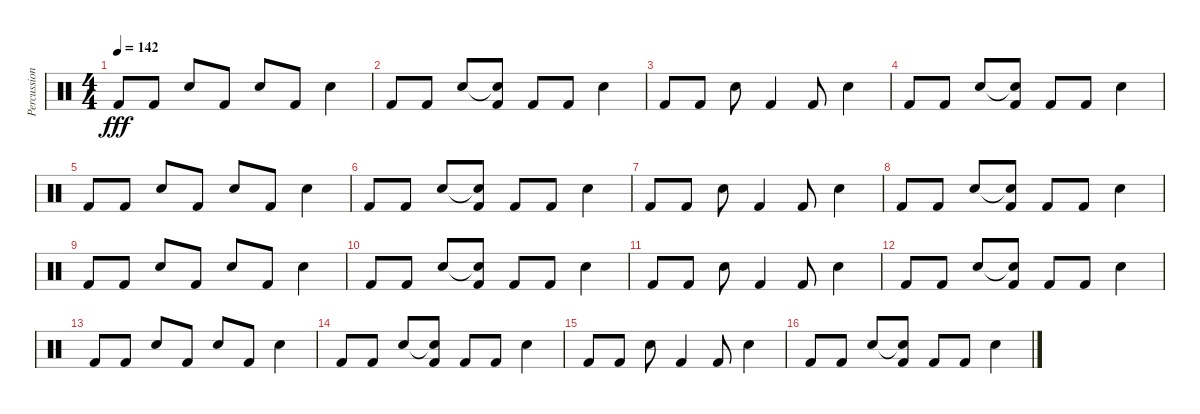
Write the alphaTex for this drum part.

\track ("Percussion" "Percussion") {instrument percussion}
\staff {score}
\articulation defaults
\ts (4 4)
\tempo 142
\clef neutral
\ks c "Kick (hit) 2".8{dy fff} "Kick (hit) 2".8 "Snare (hit) 2".8 "Kick (hit) 2".8 "Snare (hit) 2".8 "Kick (hit) 2".8 "Snare (hit) 2".4
|
"Kick (hit) 2".8 "Kick (hit) 2".8 "Snare (hit) 2".8 ("Snare (hit) 2"{t} "Kick (hit) 2").8 "Kick (hit) 2".8 "Kick (hit) 2".8 "Snare (hit) 2".4 |
"Kick (hit) 2".8 "Kick (hit) 2".8 "Snare (hit) 2".8 "Kick (hit) 2".4 "Kick (hit) 2".8 "Snare (hit) 2".4 |
"Kick (hit) 2".8 "Kick (hit) 2".8 "Snare (hit) 2".8 ("Snare (hit) 2"{t} "Kick (hit) 2").8 "Kick (hit) 2".8 "Kick (hit) 2".8 "Snare (hit) 2".4 |
"Kick (hit) 2".8 "Kick (hit) 2".8 "Snare (hit) 2".8 "Kick (hit) 2".8 "Snare (hit) 2".8 "Kick (hit) 2".8 "Snare (hit) 2".4 |
"Kick (hit) 2".8 "Kick (hit) 2".8 "Snare (hit) 2".8 ("Snare (hit) 2"{t} "Kick (hit) 2").8 "Kick (hit) 2".8 "Kick (hit) 2".8 "Snare (hit) 2".4 |
"Kick (hit) 2".8 "Kick (hit) 2".8 "Snare (hit) 2".8 "Kick (hit) 2".4 "Kick (hit) 2".8 "Snare (hit) 2".4 |
"Kick (hit) 2".8 "Kick (hit) 2".8 "Snare (hit) 2".8 ("Snare (hit) 2"{t} "Kick (hit) 2").8 "Kick (hit) 2".8 "Kick (hit) 2".8 "Snare (hit) 2".4 |
"Kick (hit) 2".8 "Kick (hit) 2".8 "Snare (hit) 2".8 "Kick (hit) 2".8 "Snare (hit) 2".8 "Kick (hit) 2".8 "Snare (hit) 2".4 |
"Kick (hit) 2".8 "Kick (hit) 2".8 "Snare (hit) 2".8 ("Snare (hit) 2"{t} "Kick (hit) 2").8 "Kick (hit) 2".8 "Kick (hit) 2".8 "Snare (hit) 2".4 |
"Kick (hit) 2".8 "Kick (hit) 2".8 "Snare (hit) 2".8 "Kick (hit) 2".4 "Kick (hit) 2".8 "Snare (hit) 2".4 |
"Kick (hit) 2".8 "Kick (hit) 2".8 "Snare (hit) 2".8 ("Snare (hit) 2"{t} "Kick (hit) 2").8 "Kick (hit) 2".8 "Kick (hit) 2".8 "Snare (hit) 2".4 |
"Kick (hit) 2".8 "Kick (hit) 2".8 "Snare (hit) 2".8 "Kick (hit) 2".8 "Snare (hit) 2".8 "Kick (hit) 2".8 "Snare (hit) 2".4 |
"Kick (hit) 2".8 "Kick (hit) 2".8 "Snare (hit) 2".8 ("Snare (hit) 2"{t} "Kick (hit) 2").8 "Kick (hit) 2".8 "Kick (hit) 2".8 "Snare (hit) 2".4 |
"Kick (hit) 2".8 "Kick (hit) 2".8 "Snare (hit) 2".8 "Kick (hit) 2".4 "Kick (hit) 2".8 "Snare (hit) 2".4 |
"Kick (hit) 2".8 "Kick (hit) 2".8 "Snare (hit) 2".8 ("Snare (hit) 2"{t} "Kick (hit) 2").8 "Kick (hit) 2".8 "Kick (hit) 2".8 "Snare (hit) 2".4
